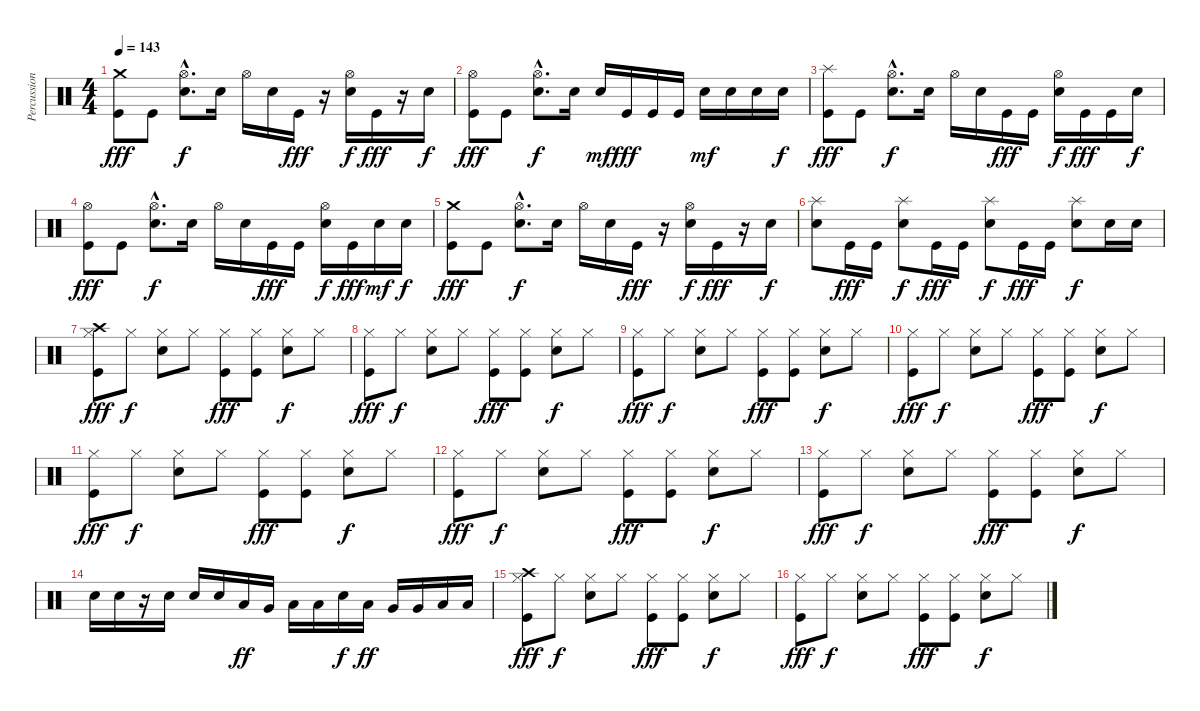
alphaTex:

\track ("Percussion" "Percussion") {instrument percussion}
\staff {score}
\articulation defaults
\ts (4 4)
\tempo 143
\clef neutral
\ks c
("Crash medium (hit)" "Kick (hit)").8{dy fff} "Kick (hit)".8 ("Hi-Hat (open)"{hac} "Electric Snare (hit)"{hac}).8{d dy f} "Electric Snare (hit)".16 "Hi-Hat (open)".16 "Electric Snare (hit)".16 "Kick (hit)".16{dy fff} r.16 ("Hi-Hat (open)" "Electric Snare (hit)").16{dy f} "Kick (hit)".16{dy fff} r.16 "Electric Snare (hit)".16{dy f} |
("Hi-Hat (open)" "Kick (hit)").8{dy fff} "Kick (hit)".8 ("Hi-Hat (open)"{hac} "Electric Snare (hit)"{hac}).8{d dy f} "Electric Snare (hit)".16 "Electric Snare (hit)".16{dy mf} "Kick (hit)".16{dy fff} "Kick (hit)".16 "Kick (hit)".16 "Electric Snare (hit)".16{dy mf} "Electric Snare (hit)".16 "Electric Snare (hit)".16 "Electric Snare (hit)".16{dy f} |
("Splash (hit)" "Kick (hit)").8{dy fff} "Kick (hit)".8 ("Hi-Hat (open)"{hac} "Electric Snare (hit)"{hac}).8{d dy f} "Electric Snare (hit)".16 "Hi-Hat (open)".16 "Electric Snare (hit)".16 "Kick (hit)".16{dy fff} "Kick (hit)".16 ("Hi-Hat (open)" "Electric Snare (hit)").16{dy f} "Kick (hit)".16{dy fff} "Kick (hit)".16 "Electric Snare (hit)".16{dy f} |
("Hi-Hat (open)" "Kick (hit)").8{dy fff} "Kick (hit)".8 ("Hi-Hat (open)"{hac} "Electric Snare (hit)"{hac}).8{d dy f} "Electric Snare (hit)".16 "Hi-Hat (open)".16 "Electric Snare (hit)".16 "Kick (hit)".16{dy fff} "Kick (hit)".16 ("Hi-Hat (open)" "Electric Snare (hit)").16{dy f} "Kick (hit)".16{dy fff} "Electric Snare (hit)".16{dy mf} "Electric Snare (hit)".16{dy f} |
("Crash medium (hit)" "Kick (hit)").8{dy fff} "Kick (hit)".8 ("Hi-Hat (open)"{hac} "Electric Snare (hit)"{hac}).8{d dy f} "Electric Snare (hit)".16 "Hi-Hat (open)".16 "Electric Snare (hit)".16 "Kick (hit)".16{dy fff} r.16 ("Hi-Hat (open)" "Electric Snare (hit)").16{dy f} "Kick (hit)".16{dy fff} r.16 "Electric Snare (hit)".16{dy f} |
("Splash (hit)" "Electric Snare (hit)").8 "Kick (hit)".16{dy fff} "Kick (hit)".16 ("Splash (hit)" "Electric Snare (hit)").8{dy f} "Kick (hit)".16{dy fff} "Kick (hit)".16 ("Splash (hit)" "Electric Snare (hit)").8{dy f} "Kick (hit)".16{dy fff} "Kick (hit)".16 ("Splash (hit)" "Electric Snare (hit)").8{dy f} "Electric Snare (hit)".16 "Electric Snare (hit)".16 |
("Crash high (hit)" "Kick (hit)" "Hi-Hat (closed)").8{dy fff} "Hi-Hat (closed)".8{dy f} ("Electric Snare (hit)" "Hi-Hat (closed)").8 "Hi-Hat (closed)".8 ("Kick (hit)" "Hi-Hat (closed)").8{dy fff} ("Kick (hit)" "Hi-Hat (closed)").8 ("Electric Snare (hit)" "Hi-Hat (closed)").8{dy f} "Hi-Hat (closed)".8 |
("Kick (hit)" "Hi-Hat (closed)").8{dy fff} "Hi-Hat (closed)".8{dy f} ("Electric Snare (hit)" "Hi-Hat (closed)").8 "Hi-Hat (closed)".8 ("Kick (hit)" "Hi-Hat (closed)").8{dy fff} ("Kick (hit)" "Hi-Hat (closed)").8 ("Electric Snare (hit)" "Hi-Hat (closed)").8{dy f} "Hi-Hat (closed)".8 |
("Kick (hit)" "Hi-Hat (closed)").8{dy fff} "Hi-Hat (closed)".8{dy f} ("Electric Snare (hit)" "Hi-Hat (closed)").8 "Hi-Hat (closed)".8 ("Kick (hit)" "Hi-Hat (closed)").8{dy fff} ("Kick (hit)" "Hi-Hat (closed)").8 ("Electric Snare (hit)" "Hi-Hat (closed)").8{dy f} "Hi-Hat (closed)".8 |
("Kick (hit)" "Hi-Hat (closed)").8{dy fff} "Hi-Hat (closed)".8{dy f} ("Electric Snare (hit)" "Hi-Hat (closed)").8 "Hi-Hat (closed)".8 ("Kick (hit)" "Hi-Hat (closed)").8{dy fff} ("Kick (hit)" "Hi-Hat (closed)").8 ("Electric Snare (hit)" "Hi-Hat (closed)").8{dy f} "Hi-Hat (closed)".8 |
("Kick (hit)" "Hi-Hat (closed)").8{dy fff} "Hi-Hat (closed)".8{dy f} ("Electric Snare (hit)" "Hi-Hat (closed)").8 "Hi-Hat (closed)".8 ("Kick (hit)" "Hi-Hat (closed)").8{dy fff} ("Kick (hit)" "Hi-Hat (closed)").8 ("Electric Snare (hit)" "Hi-Hat (closed)").8{dy f} "Hi-Hat (closed)".8 |
("Kick (hit)" "Hi-Hat (closed)").8{dy fff} "Hi-Hat (closed)".8{dy f} ("Electric Snare (hit)" "Hi-Hat (closed)").8 "Hi-Hat (closed)".8 ("Kick (hit)" "Hi-Hat (closed)").8{dy fff} ("Kick (hit)" "Hi-Hat (closed)").8 ("Electric Snare (hit)" "Hi-Hat (closed)").8{dy f} "Hi-Hat (closed)".8 |
("Kick (hit)" "Hi-Hat (closed)").8{dy fff} "Hi-Hat (closed)".8{dy f} ("Electric Snare (hit)" "Hi-Hat (closed)").8 "Hi-Hat (closed)".8 ("Kick (hit)" "Hi-Hat (closed)").8{dy fff} ("Kick (hit)" "Hi-Hat (closed)").8 ("Electric Snare (hit)" "Hi-Hat (closed)").8{dy f} "Hi-Hat (closed)".8 |
"Electric Snare (hit)".16 "Electric Snare (hit)".16 r.16 "Electric Snare (hit)".16 "Electric Snare (hit)".16 "Electric Snare (hit)".16 "Low Tom (hit)".16{dy ff} "Very Low Tom (hit)".16 "Low Floor Tom (hit)".16 "Low Floor Tom (hit)".16 "Electric Snare (hit)".16{dy f} "Low Tom (hit)".16{dy ff} "Very Low Tom (hit)".16 "Very Low Tom (hit)".16 "Low Floor Tom (hit)".16 "Low Floor Tom (hit)".16 |
("Crash high (hit)" "Kick (hit)" "Hi-Hat (closed)").8{dy fff} "Hi-Hat (closed)".8{dy f} ("Electric Snare (hit)" "Hi-Hat (closed)").8 "Hi-Hat (closed)".8 ("Kick (hit)" "Hi-Hat (closed)").8{dy fff} ("Kick (hit)" "Hi-Hat (closed)").8 ("Electric Snare (hit)" "Hi-Hat (closed)").8{dy f} "Hi-Hat (closed)".8 |
("Kick (hit)" "Hi-Hat (closed)").8{dy fff} "Hi-Hat (closed)".8{dy f} ("Electric Snare (hit)" "Hi-Hat (closed)").8 "Hi-Hat (closed)".8 ("Kick (hit)" "Hi-Hat (closed)").8{dy fff} ("Kick (hit)" "Hi-Hat (closed)").8 ("Electric Snare (hit)" "Hi-Hat (closed)").8{dy f} "Hi-Hat (closed)".8
